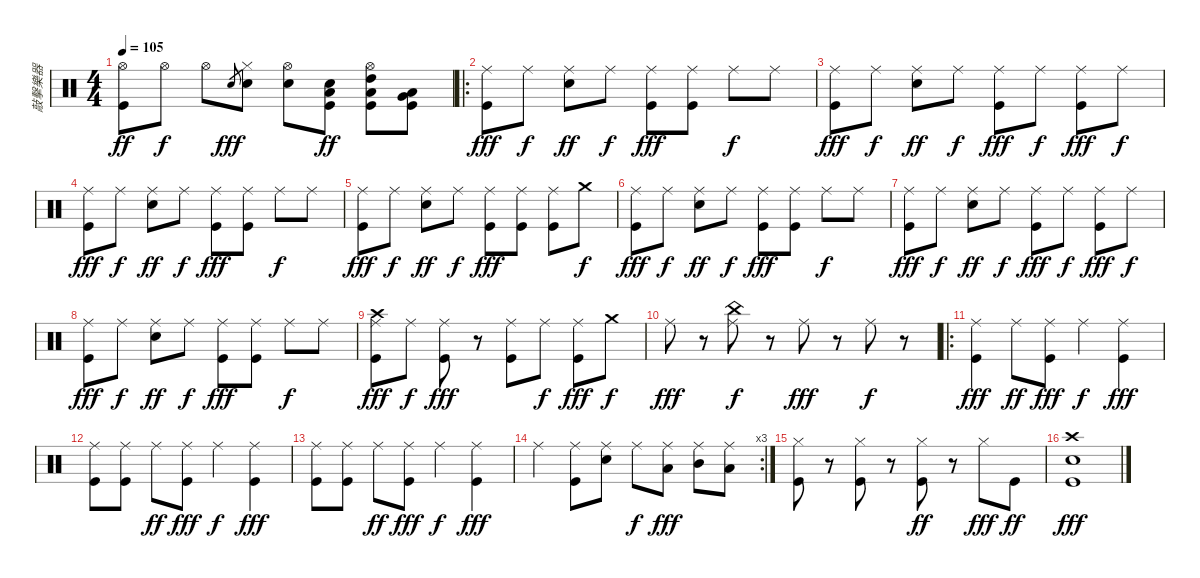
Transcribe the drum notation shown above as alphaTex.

\track ("敲擊樂器" "敲擊樂器") {instrument percussion}
\staff {score}
\articulation defaults
\ts (4 4)
\tempo 105
\clef neutral
\ks c
("Hi-Hat (open)" "Kick (hit)").8{dy ff} "Hi-Hat (open)".8{dy f} "Hi-Hat (open)".8 "Snare (hit) 2"{sl}.8{gr dy fff} ("Hi-Hat (closed)" "Snare (hit) 2").8 ("Hi-Hat (open)" "Snare (hit) 2").8 ("Snare (hit) 2" "Low Tom (hit)" "Kick (hit)").8{dy ff} ("Hi-Hat (open)" "Low Tom (hit)" "High Tom (hit)" "Kick (hit)").8 ("Low Tom (hit)" "Very Low Tom (hit)" "Kick (hit)").8 |
\ro
("Ride (middle)" "Kick (hit)").8{dy fff} "Ride (middle)".8{dy f} ("Ride (middle)" "Electric Snare (hit)").8{dy ff} "Ride (middle)".8{dy f} ("Ride (middle)" "Kick (hit)").8{dy fff} ("Ride (middle)" "Kick (hit)").8 "Ride (middle)".8{dy f} "Ride (middle)".8 |
("Ride (middle)" "Kick (hit)").8{dy fff} "Ride (middle)".8{dy f} ("Ride (middle)" "Electric Snare (hit)").8{dy ff} "Ride (middle)".8{dy f} ("Ride (middle)" "Kick (hit)").8{dy fff} "Ride (middle)".8{dy f} ("Ride (middle)" "Kick (hit)").8{dy fff} "Ride (middle)".8{dy f} |
("Ride (middle)" "Kick (hit)").8{dy fff} "Ride (middle)".8{dy f} ("Ride (middle)" "Electric Snare (hit)").8{dy ff} "Ride (middle)".8{dy f} ("Ride (middle)" "Kick (hit)").8{dy fff} ("Ride (middle)" "Kick (hit)").8 "Ride (middle)".8{dy f} "Ride (middle)".8 |
("Ride (middle)" "Kick (hit)").8{dy fff} "Ride (middle)".8{dy f} ("Ride (middle)" "Electric Snare (hit)").8{dy ff} "Ride (middle)".8{dy f} ("Ride (middle)" "Kick (hit)").8{dy fff} ("Ride (middle)" "Kick (hit)").8 ("Ride (middle)" "Kick (hit)").8 "Crash medium (hit)".8{dy f} |
("Ride (middle)" "Kick (hit)").8{dy fff} "Ride (middle)".8{dy f} ("Ride (middle)" "Electric Snare (hit)").8{dy ff} "Ride (middle)".8{dy f} ("Ride (middle)" "Kick (hit)").8{dy fff} ("Ride (middle)" "Kick (hit)").8 "Ride (middle)".8{dy f} "Ride (middle)".8 |
("Ride (middle)" "Kick (hit)").8{dy fff} "Ride (middle)".8{dy f} ("Ride (middle)" "Electric Snare (hit)").8{dy ff} "Ride (middle)".8{dy f} ("Ride (middle)" "Kick (hit)").8{dy fff} "Ride (middle)".8{dy f} ("Ride (middle)" "Kick (hit)").8{dy fff} "Ride (middle)".8{dy f} |
("Ride (middle)" "Kick (hit)").8{dy fff} "Ride (middle)".8{dy f} ("Ride (middle)" "Electric Snare (hit)").8{dy ff} "Ride (middle)".8{dy f} ("Ride (middle)" "Kick (hit)").8{dy fff} ("Ride (middle)" "Kick (hit)").8 "Ride (middle)".8{dy f} "Ride (middle)".8 |
("Ride (middle)" "Crash high (hit)" "Kick (hit)").8{dy fff} "Ride (middle)".8{dy f} ("Ride (middle)" "Kick (hit)").8{dy fff} r.8 ("Ride (middle)" "Kick (hit)").8 "Ride (middle)".8{dy f} ("Ride (middle)" "Kick (hit)").8{dy fff} "Crash medium (hit)".8{dy f} |
"Ride (middle)".8{dy fff} r.8 ("Ride (middle)" "China (hit)").8{dy f} r.8 "Ride (middle)".8{dy fff} r.8 "Ride (middle)".8{dy f} r.8 |
\ro
("Ride (middle)" "Kick (hit)").4{dy fff} "Ride (middle)".8{dy ff} ("Ride (middle)" "Kick (hit)").8{dy fff} "Ride (middle)".4{dy f} ("Ride (middle)" "Kick (hit)").4{dy fff} |
("Ride (middle)" "Kick (hit)").8 ("Ride (middle)" "Kick (hit)").8 "Ride (middle)".8{dy ff} ("Ride (middle)" "Kick (hit)").8{dy fff} "Ride (middle)".4{dy f} ("Ride (middle)" "Kick (hit)").4{dy fff} |
("Ride (middle)" "Kick (hit)").8 ("Ride (middle)" "Kick (hit)").8 "Ride (middle)".8{dy ff} ("Ride (middle)" "Kick (hit)").8{dy fff} "Ride (middle)".4{dy f} ("Ride (middle)" "Kick (hit)").4{dy fff} |
\rc 3 "Ride (middle)".4
("Ride (middle)" "Kick (hit)").8 ("Ride (middle)" "Snare (hit) 2").8 "Ride (middle)".8{dy f} ("Ride (middle)" "Low Tom (hit)").8{dy fff} ("Ride (middle)" "Mid Tom (hit)").8 ("Ride (middle)" "Low Tom (hit)").8 |
("Hi-Hat (closed)" "Kick (hit)").8 r.8 ("Hi-Hat (closed)" "Kick (hit)").8 r.8 ("Hi-Hat (closed)" "Kick (hit)").8{dy ff} r.8 "Hi-Hat (closed)".8{dy fff} "Kick (hit)".8{dy ff} |
("Crash high (hit)" "Snare (hit) 2" "Kick (hit)").1{dy fff}
